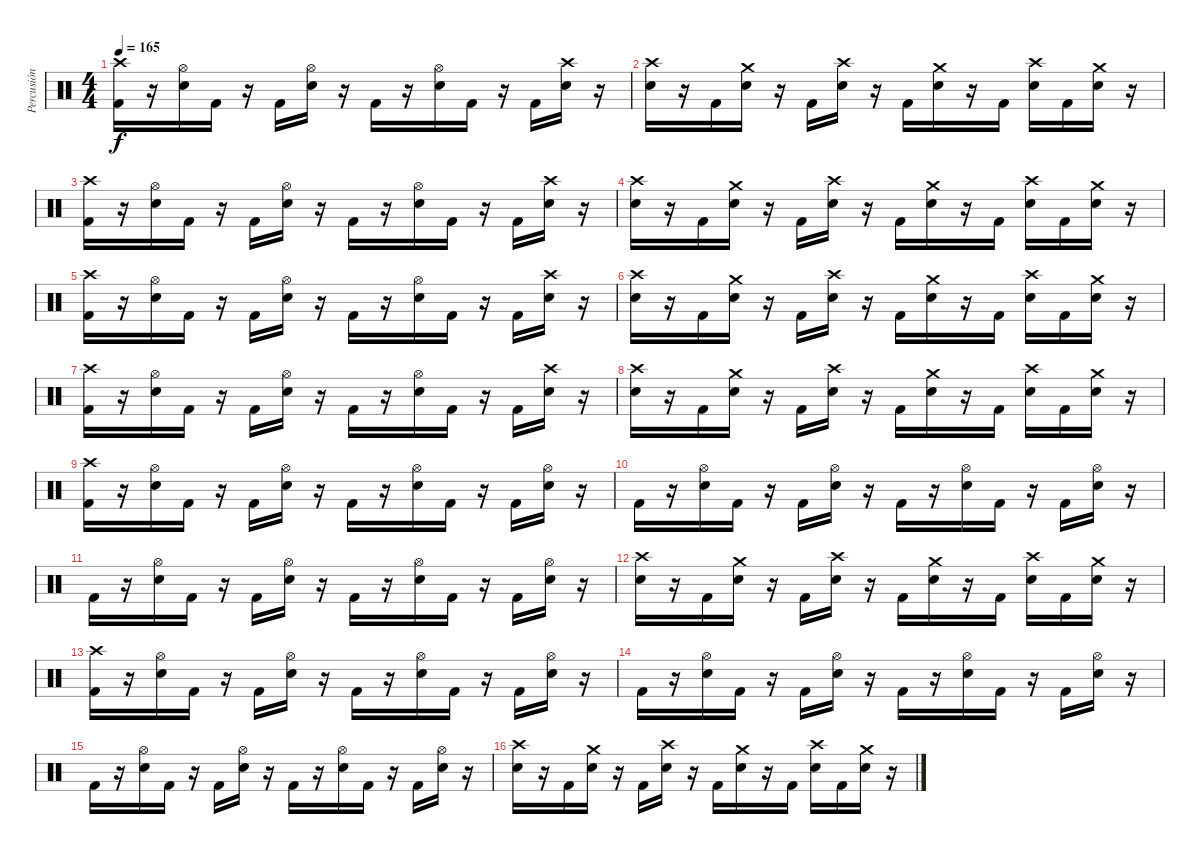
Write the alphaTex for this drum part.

\track ("Percusión" "Percusión") {instrument percussion}
\staff {score}
\articulation defaults
\ts (4 4)
\tempo 165
\clef neutral
\ks c
("Crash high (hit)" "Kick (hit) 2").16{dy f} r.16 ("Hi-Hat (open)" "Electric Snare (hit)").16 "Kick (hit) 2".16 r.16 "Kick (hit) 2".16 ("Hi-Hat (open)" "Electric Snare (hit)").16 r.16 "Kick (hit) 2".16 r.16 ("Hi-Hat (open)" "Electric Snare (hit)").16 "Kick (hit) 2".16 r.16 "Kick (hit) 2".16 ("Crash high (hit)" "Electric Snare (hit)").16 r.16 |
("Crash high (hit)" "Electric Snare (hit)").16 r.16 "Kick (hit) 2".16 ("Crash medium (hit)" "Electric Snare (hit)").16 r.16 "Kick (hit) 2".16 ("Crash high (hit)" "Electric Snare (hit)").16 r.16 "Kick (hit) 2".16 ("Crash medium (hit)" "Electric Snare (hit)").16 r.16 "Kick (hit) 2".16 ("Crash high (hit)" "Electric Snare (hit)").16 "Kick (hit) 2".16 ("Crash medium (hit)" "Electric Snare (hit)").16 r.16 |
("Crash high (hit)" "Kick (hit) 2").16 r.16 ("Hi-Hat (open)" "Electric Snare (hit)").16 "Kick (hit) 2".16 r.16 "Kick (hit) 2".16 ("Hi-Hat (open)" "Electric Snare (hit)").16 r.16 "Kick (hit) 2".16 r.16 ("Hi-Hat (open)" "Electric Snare (hit)").16 "Kick (hit) 2".16 r.16 "Kick (hit) 2".16 ("Crash high (hit)" "Electric Snare (hit)").16 r.16 |
("Crash high (hit)" "Electric Snare (hit)").16 r.16 "Kick (hit) 2".16 ("Crash medium (hit)" "Electric Snare (hit)").16 r.16 "Kick (hit) 2".16 ("Crash high (hit)" "Electric Snare (hit)").16 r.16 "Kick (hit) 2".16 ("Crash medium (hit)" "Electric Snare (hit)").16 r.16 "Kick (hit) 2".16 ("Crash high (hit)" "Electric Snare (hit)").16 "Kick (hit) 2".16 ("Crash medium (hit)" "Electric Snare (hit)").16 r.16 |
("Crash high (hit)" "Kick (hit) 2").16 r.16 ("Hi-Hat (open)" "Electric Snare (hit)").16 "Kick (hit) 2".16 r.16 "Kick (hit) 2".16 ("Hi-Hat (open)" "Electric Snare (hit)").16 r.16 "Kick (hit) 2".16 r.16 ("Hi-Hat (open)" "Electric Snare (hit)").16 "Kick (hit) 2".16 r.16 "Kick (hit) 2".16 ("Crash high (hit)" "Electric Snare (hit)").16 r.16 |
("Crash high (hit)" "Electric Snare (hit)").16 r.16 "Kick (hit) 2".16 ("Crash medium (hit)" "Electric Snare (hit)").16 r.16 "Kick (hit) 2".16 ("Crash high (hit)" "Electric Snare (hit)").16 r.16 "Kick (hit) 2".16 ("Crash medium (hit)" "Electric Snare (hit)").16 r.16 "Kick (hit) 2".16 ("Crash high (hit)" "Electric Snare (hit)").16 "Kick (hit) 2".16 ("Crash medium (hit)" "Electric Snare (hit)").16 r.16 |
("Crash high (hit)" "Kick (hit) 2").16 r.16 ("Hi-Hat (open)" "Electric Snare (hit)").16 "Kick (hit) 2".16 r.16 "Kick (hit) 2".16 ("Hi-Hat (open)" "Electric Snare (hit)").16 r.16 "Kick (hit) 2".16 r.16 ("Hi-Hat (open)" "Electric Snare (hit)").16 "Kick (hit) 2".16 r.16 "Kick (hit) 2".16 ("Crash high (hit)" "Electric Snare (hit)").16 r.16 |
("Crash high (hit)" "Electric Snare (hit)").16 r.16 "Kick (hit) 2".16 ("Crash medium (hit)" "Electric Snare (hit)").16 r.16 "Kick (hit) 2".16 ("Crash high (hit)" "Electric Snare (hit)").16 r.16 "Kick (hit) 2".16 ("Crash medium (hit)" "Electric Snare (hit)").16 r.16 "Kick (hit) 2".16 ("Crash high (hit)" "Electric Snare (hit)").16 "Kick (hit) 2".16 ("Crash medium (hit)" "Electric Snare (hit)").16 r.16 |
("Crash high (hit)" "Kick (hit) 2").16 r.16 ("Hi-Hat (open)" "Electric Snare (hit)").16 "Kick (hit) 2".16 r.16 "Kick (hit) 2".16 ("Hi-Hat (open)" "Electric Snare (hit)").16 r.16 "Kick (hit) 2".16 r.16 ("Hi-Hat (open)" "Electric Snare (hit)").16 "Kick (hit) 2".16 r.16 "Kick (hit) 2".16 ("Hi-Hat (open)" "Electric Snare (hit)").16 r.16 |
"Kick (hit) 2".16 r.16 ("Hi-Hat (open)" "Electric Snare (hit)").16 "Kick (hit) 2".16 r.16 "Kick (hit) 2".16 ("Hi-Hat (open)" "Electric Snare (hit)").16 r.16 "Kick (hit) 2".16 r.16 ("Hi-Hat (open)" "Electric Snare (hit)").16 "Kick (hit) 2".16 r.16 "Kick (hit) 2".16 ("Hi-Hat (open)" "Electric Snare (hit)").16 r.16 |
"Kick (hit) 2".16 r.16 ("Hi-Hat (open)" "Electric Snare (hit)").16 "Kick (hit) 2".16 r.16 "Kick (hit) 2".16 ("Hi-Hat (open)" "Electric Snare (hit)").16 r.16 "Kick (hit) 2".16 r.16 ("Hi-Hat (open)" "Electric Snare (hit)").16 "Kick (hit) 2".16 r.16 "Kick (hit) 2".16 ("Hi-Hat (open)" "Electric Snare (hit)").16 r.16 |
("Crash high (hit)" "Electric Snare (hit)").16 r.16 "Kick (hit) 2".16 ("Crash medium (hit)" "Electric Snare (hit)").16 r.16 "Kick (hit) 2".16 ("Crash high (hit)" "Electric Snare (hit)").16 r.16 "Kick (hit) 2".16 ("Crash medium (hit)" "Electric Snare (hit)").16 r.16 "Kick (hit) 2".16 ("Crash high (hit)" "Electric Snare (hit)").16 "Kick (hit) 2".16 ("Crash medium (hit)" "Electric Snare (hit)").16 r.16 |
("Crash high (hit)" "Kick (hit) 2").16 r.16 ("Hi-Hat (open)" "Electric Snare (hit)").16 "Kick (hit) 2".16 r.16 "Kick (hit) 2".16 ("Hi-Hat (open)" "Electric Snare (hit)").16 r.16 "Kick (hit) 2".16 r.16 ("Hi-Hat (open)" "Electric Snare (hit)").16 "Kick (hit) 2".16 r.16 "Kick (hit) 2".16 ("Hi-Hat (open)" "Electric Snare (hit)").16 r.16 |
"Kick (hit) 2".16 r.16 ("Hi-Hat (open)" "Electric Snare (hit)").16 "Kick (hit) 2".16 r.16 "Kick (hit) 2".16 ("Hi-Hat (open)" "Electric Snare (hit)").16 r.16 "Kick (hit) 2".16 r.16 ("Hi-Hat (open)" "Electric Snare (hit)").16 "Kick (hit) 2".16 r.16 "Kick (hit) 2".16 ("Hi-Hat (open)" "Electric Snare (hit)").16 r.16 |
"Kick (hit) 2".16 r.16 ("Hi-Hat (open)" "Electric Snare (hit)").16 "Kick (hit) 2".16 r.16 "Kick (hit) 2".16 ("Hi-Hat (open)" "Electric Snare (hit)").16 r.16 "Kick (hit) 2".16 r.16 ("Hi-Hat (open)" "Electric Snare (hit)").16 "Kick (hit) 2".16 r.16 "Kick (hit) 2".16 ("Hi-Hat (open)" "Electric Snare (hit)").16 r.16 |
("Crash high (hit)" "Electric Snare (hit)").16 r.16 "Kick (hit) 2".16 ("Crash medium (hit)" "Electric Snare (hit)").16 r.16 "Kick (hit) 2".16 ("Crash high (hit)" "Electric Snare (hit)").16 r.16 "Kick (hit) 2".16 ("Crash medium (hit)" "Electric Snare (hit)").16 r.16 "Kick (hit) 2".16 ("Crash high (hit)" "Electric Snare (hit)").16 "Kick (hit) 2".16 ("Crash medium (hit)" "Electric Snare (hit)").16 r.16
